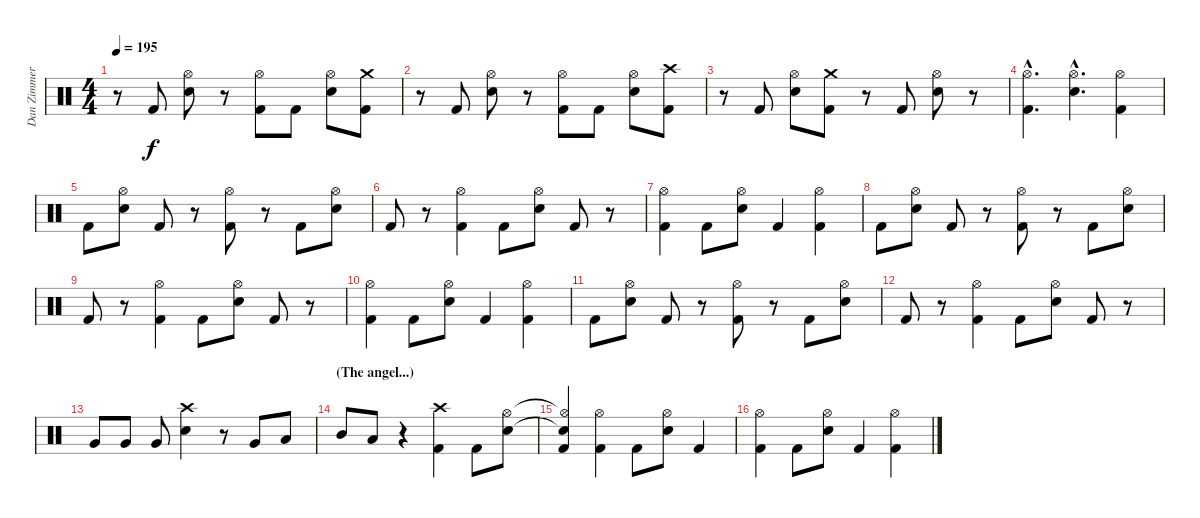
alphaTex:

\track ("Dan Zimmermann" "Dan Zimmer") {instrument percussion}
\staff {score}
\articulation defaults
\ts (4 4)
\tempo 195
\clef neutral
\ks c
r.8{dy f} "Kick (hit) 2".8 ("Hi-Hat (open)" "Electric Snare (hit)").8 r.8 ("Hi-Hat (open)" "Kick (hit) 2").8 "Kick (hit) 2".8 ("Hi-Hat (open)" "Electric Snare (hit)").8 ("Crash medium (hit)" "Kick (hit) 2").8 |
r.8 "Kick (hit) 2".8 ("Hi-Hat (open)" "Electric Snare (hit)").8 r.8 ("Hi-Hat (open)" "Kick (hit) 2").8 "Kick (hit) 2".8 ("Hi-Hat (open)" "Electric Snare (hit)").8 ("Crash high (hit)" "Kick (hit) 2").8 |
r.8 "Kick (hit) 2".8 ("Hi-Hat (open)" "Electric Snare (hit)").8 ("Crash medium (hit)" "Kick (hit) 2").8 r.8 "Kick (hit) 2".8 ("Hi-Hat (open)" "Electric Snare (hit)").8 r.8 |
("Hi-Hat (open)"{hac} "Kick (hit) 2"{hac}).4{d} ("Hi-Hat (open)"{hac} "Electric Snare (hit)"{hac}).4{d} ("Hi-Hat (open)" "Kick (hit) 2").4 |
"Kick (hit) 2".8 ("Hi-Hat (open)" "Electric Snare (hit)").8 "Kick (hit) 2".8 r.8 ("Hi-Hat (open)" "Kick (hit) 2").8 r.8 "Kick (hit) 2".8 ("Hi-Hat (open)" "Electric Snare (hit)").8 |
"Kick (hit) 2".8 r.8 ("Hi-Hat (open)" "Kick (hit) 2").4 "Kick (hit) 2".8 ("Hi-Hat (open)" "Electric Snare (hit)").8 "Kick (hit) 2".8 r.8 |
("Hi-Hat (open)" "Kick (hit) 2").4 "Kick (hit) 2".8 ("Hi-Hat (open)" "Electric Snare (hit)").8 "Kick (hit) 2".4 ("Hi-Hat (open)" "Kick (hit) 2").4 |
"Kick (hit) 2".8 ("Hi-Hat (open)" "Electric Snare (hit)").8 "Kick (hit) 2".8 r.8 ("Hi-Hat (open)" "Kick (hit) 2").8 r.8 "Kick (hit) 2".8 ("Hi-Hat (open)" "Electric Snare (hit)").8 |
"Kick (hit) 2".8 r.8 ("Hi-Hat (open)" "Kick (hit) 2").4 "Kick (hit) 2".8 ("Hi-Hat (open)" "Electric Snare (hit)").8 "Kick (hit) 2".8 r.8 |
("Hi-Hat (open)" "Kick (hit) 2").4 "Kick (hit) 2".8 ("Hi-Hat (open)" "Electric Snare (hit)").8 "Kick (hit) 2".4 ("Hi-Hat (open)" "Kick (hit) 2").4 |
"Kick (hit) 2".8 ("Hi-Hat (open)" "Electric Snare (hit)").8 "Kick (hit) 2".8 r.8 ("Hi-Hat (open)" "Kick (hit) 2").8 r.8 "Kick (hit) 2".8 ("Hi-Hat (open)" "Electric Snare (hit)").8 |
"Kick (hit) 2".8 r.8 ("Hi-Hat (open)" "Kick (hit) 2").4 "Kick (hit) 2".8 ("Hi-Hat (open)" "Electric Snare (hit)").8 "Kick (hit) 2".8 r.8 |
"Very Low Tom (hit)".8 "Very Low Tom (hit)".8 "Very Low Tom (hit)".8 ("Crash high (hit)" "Electric Snare (hit)").4 r.8 "Very Low Tom (hit)".8 "Low Tom (hit)".8 |
\section ("" "(The angel...)")
"Mid Tom (hit)".8 "Low Tom (hit)".8 r.4 ("Crash high (hit)" "Kick (hit) 2").4 "Kick (hit) 2".8 ("Hi-Hat (open)" "Electric Snare (hit)").8 |
("Hi-Hat (open)"{t} "Electric Snare (hit)"{t} "Kick (hit) 2").4 ("Hi-Hat (open)" "Kick (hit) 2").4 "Kick (hit) 2".8 ("Hi-Hat (open)" "Electric Snare (hit)").8 "Kick (hit) 2".4 |
("Hi-Hat (open)" "Kick (hit) 2").4 "Kick (hit) 2".8 ("Hi-Hat (open)" "Electric Snare (hit)").8 "Kick (hit) 2".4 ("Hi-Hat (open)" "Kick (hit) 2").4
